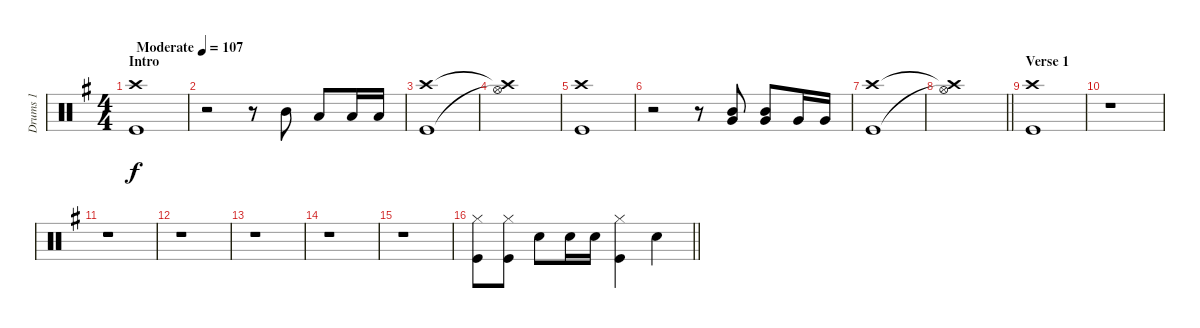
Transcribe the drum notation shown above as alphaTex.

\track ("Drums 1" "Drums 1") {instrument percussion}
\staff {score}
\articulation defaults
\ts (4 4)
\section ("" "Intro")
\tempo (107 "Moderate")
\clef neutral
\ks g
("Kick (hit)" "Crash high (hit)").1{dy f} |
r.2 r.8 "Mid Tom (hit)".8 "Low Tom (hit)".8 "Low Tom (hit)".16 "Low Tom (hit)".16 |
("Crash high (hit)" "Kick (hit)").1 |
("Crash high (hit)"{t} "Hi-Hat (open)"{t}).1 |
("Crash high (hit)" "Kick (hit)").1 |
r.2 r.8 ("Mid Tom (hit)" "Very Low Tom (hit)").8 ("Mid Tom (hit)" "Very Low Tom (hit)").8 "Very Low Tom (hit)".16 "Very Low Tom (hit)".16 |
("Crash high (hit)" "Kick (hit)").1 |
\barLineRight lightlight
("Crash high (hit)"{t} "Hi-Hat (open)"{t}).1 |
\section ("" "Verse 1")
("Kick (hit)" "Crash high (hit)").1 |
r.1 |
r.1 |
r.1 |
r.1 |
r.1 |
r.1 |
\barLineRight lightlight
("Hi-Hat (closed)" "Kick (hit)").8 ("Hi-Hat (closed)" "Kick (hit)").8 "Snare (hit) 2".8 "Snare (hit) 2".16 "Snare (hit) 2".16 ("Hi-Hat (closed)" "Kick (hit)").4 "Snare (hit) 2".4
